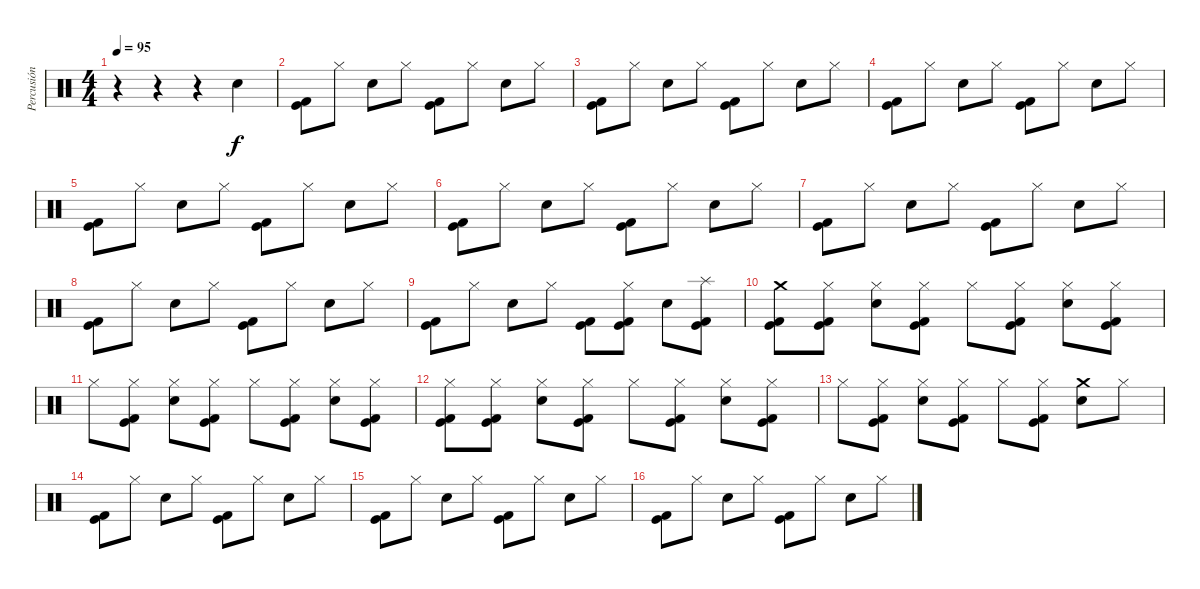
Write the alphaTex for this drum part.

\track ("Percusión" "Percusión") {instrument percussion}
\staff {score}
\articulation defaults
\ts (4 4)
\tempo 95
\clef neutral
\ks c
r.4{dy f} r.4 r.4 "Snare (hit) 2".4 |
("Kick (hit) 2" "Kick (hit)").8 "Hi-Hat (closed)".8 "Snare (hit) 2".8 "Hi-Hat (closed)".8 ("Kick (hit) 2" "Kick (hit)").8 "Hi-Hat (closed)".8 "Snare (hit) 2".8 "Hi-Hat (closed)".8 |
("Kick (hit) 2" "Kick (hit)").8 "Hi-Hat (closed)".8 "Snare (hit) 2".8 "Hi-Hat (closed)".8 ("Kick (hit) 2" "Kick (hit)").8 "Hi-Hat (closed)".8 "Snare (hit) 2".8 "Hi-Hat (closed)".8 |
("Kick (hit) 2" "Kick (hit)").8 "Hi-Hat (closed)".8 "Snare (hit) 2".8 "Hi-Hat (closed)".8 ("Kick (hit) 2" "Kick (hit)").8 "Hi-Hat (closed)".8 "Snare (hit) 2".8 "Hi-Hat (closed)".8 |
("Kick (hit) 2" "Kick (hit)").8 "Hi-Hat (closed)".8 "Snare (hit) 2".8 "Hi-Hat (closed)".8 ("Kick (hit) 2" "Kick (hit)").8 "Hi-Hat (closed)".8 "Snare (hit) 2".8 "Hi-Hat (closed)".8 |
("Kick (hit) 2" "Kick (hit)").8 "Hi-Hat (closed)".8 "Snare (hit) 2".8 "Hi-Hat (closed)".8 ("Kick (hit) 2" "Kick (hit)").8 "Hi-Hat (closed)".8 "Snare (hit) 2".8 "Hi-Hat (closed)".8 |
("Kick (hit) 2" "Kick (hit)").8 "Hi-Hat (closed)".8 "Snare (hit) 2".8 "Hi-Hat (closed)".8 ("Kick (hit) 2" "Kick (hit)").8 "Hi-Hat (closed)".8 "Snare (hit) 2".8 "Hi-Hat (closed)".8 |
("Kick (hit) 2" "Kick (hit)").8 "Hi-Hat (closed)".8 "Snare (hit) 2".8 "Hi-Hat (closed)".8 ("Kick (hit) 2" "Kick (hit)").8 "Hi-Hat (closed)".8 "Snare (hit) 2".8 "Hi-Hat (closed)".8 |
("Kick (hit) 2" "Kick (hit)").8 "Hi-Hat (closed)".8 "Snare (hit) 2".8 "Hi-Hat (closed)".8 ("Kick (hit) 2" "Kick (hit)").8 ("Kick (hit) 2" "Hi-Hat (closed)" "Kick (hit)").8 "Snare (hit) 2".8 ("Kick (hit) 2" "Splash (hit)" "Kick (hit)").8 |
("Kick (hit) 2" "Crash medium (hit)" "Kick (hit)").8 ("Kick (hit) 2" "Hi-Hat (closed)" "Kick (hit)").8 ("Snare (hit) 2" "Hi-Hat (closed)").8 ("Kick (hit) 2" "Hi-Hat (closed)" "Kick (hit)").8 "Hi-Hat (closed)".8 ("Kick (hit) 2" "Hi-Hat (closed)" "Kick (hit)").8 ("Snare (hit) 2" "Hi-Hat (closed)").8 ("Kick (hit) 2" "Hi-Hat (closed)" "Kick (hit)").8 |
"Hi-Hat (closed)".8 ("Kick (hit) 2" "Hi-Hat (closed)" "Kick (hit)").8 ("Snare (hit) 2" "Hi-Hat (closed)").8 ("Kick (hit) 2" "Hi-Hat (closed)" "Kick (hit)").8 "Hi-Hat (closed)".8 ("Kick (hit) 2" "Hi-Hat (closed)" "Kick (hit)").8 ("Snare (hit) 2" "Hi-Hat (closed)").8 ("Kick (hit) 2" "Hi-Hat (closed)" "Kick (hit)").8 |
("Kick (hit) 2" "Hi-Hat (closed)" "Kick (hit)").8 ("Kick (hit) 2" "Hi-Hat (closed)" "Kick (hit)").8 ("Snare (hit) 2" "Hi-Hat (closed)").8 ("Kick (hit) 2" "Hi-Hat (closed)" "Kick (hit)").8 "Hi-Hat (closed)".8 ("Kick (hit) 2" "Hi-Hat (closed)" "Kick (hit)").8 ("Snare (hit) 2" "Hi-Hat (closed)").8 ("Kick (hit) 2" "Hi-Hat (closed)" "Kick (hit)").8 |
"Hi-Hat (closed)".8 ("Kick (hit) 2" "Hi-Hat (closed)" "Kick (hit)").8 ("Snare (hit) 2" "Hi-Hat (closed)").8 ("Kick (hit) 2" "Hi-Hat (closed)" "Kick (hit)").8 "Hi-Hat (closed)".8 ("Kick (hit) 2" "Hi-Hat (closed)" "Kick (hit)").8 ("Snare (hit) 2" "Crash medium (hit)").8 "Hi-Hat (closed)".8 |
("Kick (hit) 2" "Kick (hit)").8 "Hi-Hat (closed)".8 "Snare (hit) 2".8 "Hi-Hat (closed)".8 ("Kick (hit) 2" "Kick (hit)").8 "Hi-Hat (closed)".8 "Snare (hit) 2".8 "Hi-Hat (closed)".8 |
("Kick (hit) 2" "Kick (hit)").8 "Hi-Hat (closed)".8 "Snare (hit) 2".8 "Hi-Hat (closed)".8 ("Kick (hit) 2" "Kick (hit)").8 "Hi-Hat (closed)".8 "Snare (hit) 2".8 "Hi-Hat (closed)".8 |
("Kick (hit) 2" "Kick (hit)").8 "Hi-Hat (closed)".8 "Snare (hit) 2".8 "Hi-Hat (closed)".8 ("Kick (hit) 2" "Kick (hit)").8 "Hi-Hat (closed)".8 "Snare (hit) 2".8 "Hi-Hat (closed)".8
